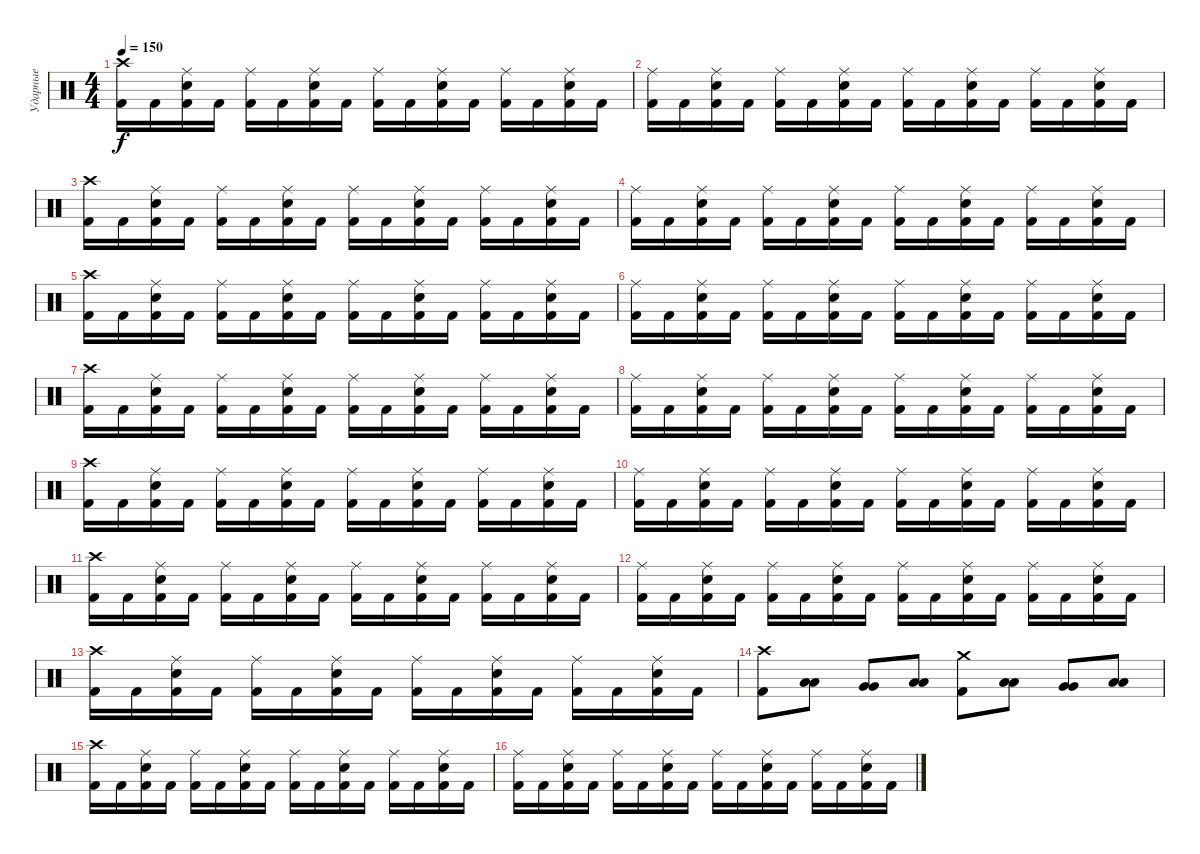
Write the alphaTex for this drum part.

\track ("Ударные" "Ударные") {instrument percussion}
\staff {score}
\articulation defaults
\ts (4 4)
\tempo 150
\clef neutral
\ks c
("Crash high (hit)" "Kick (hit) 2").16{dy f} "Kick (hit) 2".16 ("Ride (middle)" "Electric Snare (hit)" "Kick (hit) 2").16 "Kick (hit) 2".16 ("Ride (middle)" "Kick (hit) 2").16 "Kick (hit) 2".16 ("Ride (middle)" "Electric Snare (hit)" "Kick (hit) 2").16 "Kick (hit) 2".16 ("Ride (middle)" "Kick (hit) 2").16 "Kick (hit) 2".16 ("Ride (middle)" "Electric Snare (hit)" "Kick (hit) 2").16 "Kick (hit) 2".16 ("Ride (middle)" "Kick (hit) 2").16 "Kick (hit) 2".16 ("Ride (middle)" "Electric Snare (hit)" "Kick (hit) 2").16 "Kick (hit) 2".16 |
("Ride (middle)" "Kick (hit) 2").16 "Kick (hit) 2".16 ("Ride (middle)" "Electric Snare (hit)" "Kick (hit) 2").16 "Kick (hit) 2".16 ("Ride (middle)" "Kick (hit) 2").16 "Kick (hit) 2".16 ("Ride (middle)" "Electric Snare (hit)" "Kick (hit) 2").16 "Kick (hit) 2".16 ("Ride (middle)" "Kick (hit) 2").16 "Kick (hit) 2".16 ("Ride (middle)" "Electric Snare (hit)" "Kick (hit) 2").16 "Kick (hit) 2".16 ("Ride (middle)" "Kick (hit) 2").16 "Kick (hit) 2".16 ("Ride (middle)" "Electric Snare (hit)" "Kick (hit) 2").16 "Kick (hit) 2".16 |
("Crash high (hit)" "Kick (hit) 2").16 "Kick (hit) 2".16 ("Ride (middle)" "Electric Snare (hit)" "Kick (hit) 2").16 "Kick (hit) 2".16 ("Ride (middle)" "Kick (hit) 2").16 "Kick (hit) 2".16 ("Ride (middle)" "Electric Snare (hit)" "Kick (hit) 2").16 "Kick (hit) 2".16 ("Ride (middle)" "Kick (hit) 2").16 "Kick (hit) 2".16 ("Ride (middle)" "Electric Snare (hit)" "Kick (hit) 2").16 "Kick (hit) 2".16 ("Ride (middle)" "Kick (hit) 2").16 "Kick (hit) 2".16 ("Ride (middle)" "Electric Snare (hit)" "Kick (hit) 2").16 "Kick (hit) 2".16 |
("Ride (middle)" "Kick (hit) 2").16 "Kick (hit) 2".16 ("Ride (middle)" "Electric Snare (hit)" "Kick (hit) 2").16 "Kick (hit) 2".16 ("Ride (middle)" "Kick (hit) 2").16 "Kick (hit) 2".16 ("Ride (middle)" "Electric Snare (hit)" "Kick (hit) 2").16 "Kick (hit) 2".16 ("Ride (middle)" "Kick (hit) 2").16 "Kick (hit) 2".16 ("Ride (middle)" "Electric Snare (hit)" "Kick (hit) 2").16 "Kick (hit) 2".16 ("Ride (middle)" "Kick (hit) 2").16 "Kick (hit) 2".16 ("Ride (middle)" "Electric Snare (hit)" "Kick (hit) 2").16 "Kick (hit) 2".16 |
("Crash high (hit)" "Kick (hit) 2").16 "Kick (hit) 2".16 ("Ride (middle)" "Electric Snare (hit)" "Kick (hit) 2").16 "Kick (hit) 2".16 ("Ride (middle)" "Kick (hit) 2").16 "Kick (hit) 2".16 ("Ride (middle)" "Electric Snare (hit)" "Kick (hit) 2").16 "Kick (hit) 2".16 ("Ride (middle)" "Kick (hit) 2").16 "Kick (hit) 2".16 ("Ride (middle)" "Electric Snare (hit)" "Kick (hit) 2").16 "Kick (hit) 2".16 ("Ride (middle)" "Kick (hit) 2").16 "Kick (hit) 2".16 ("Ride (middle)" "Electric Snare (hit)" "Kick (hit) 2").16 "Kick (hit) 2".16 |
("Ride (middle)" "Kick (hit) 2").16 "Kick (hit) 2".16 ("Ride (middle)" "Electric Snare (hit)" "Kick (hit) 2").16 "Kick (hit) 2".16 ("Ride (middle)" "Kick (hit) 2").16 "Kick (hit) 2".16 ("Ride (middle)" "Electric Snare (hit)" "Kick (hit) 2").16 "Kick (hit) 2".16 ("Ride (middle)" "Kick (hit) 2").16 "Kick (hit) 2".16 ("Ride (middle)" "Electric Snare (hit)" "Kick (hit) 2").16 "Kick (hit) 2".16 ("Ride (middle)" "Kick (hit) 2").16 "Kick (hit) 2".16 ("Ride (middle)" "Electric Snare (hit)" "Kick (hit) 2").16 "Kick (hit) 2".16 |
("Crash high (hit)" "Kick (hit) 2").16 "Kick (hit) 2".16 ("Ride (middle)" "Electric Snare (hit)" "Kick (hit) 2").16 "Kick (hit) 2".16 ("Ride (middle)" "Kick (hit) 2").16 "Kick (hit) 2".16 ("Ride (middle)" "Electric Snare (hit)" "Kick (hit) 2").16 "Kick (hit) 2".16 ("Ride (middle)" "Kick (hit) 2").16 "Kick (hit) 2".16 ("Ride (middle)" "Electric Snare (hit)" "Kick (hit) 2").16 "Kick (hit) 2".16 ("Ride (middle)" "Kick (hit) 2").16 "Kick (hit) 2".16 ("Ride (middle)" "Electric Snare (hit)" "Kick (hit) 2").16 "Kick (hit) 2".16 |
("Ride (middle)" "Kick (hit) 2").16 "Kick (hit) 2".16 ("Ride (middle)" "Electric Snare (hit)" "Kick (hit) 2").16 "Kick (hit) 2".16 ("Ride (middle)" "Kick (hit) 2").16 "Kick (hit) 2".16 ("Ride (middle)" "Electric Snare (hit)" "Kick (hit) 2").16 "Kick (hit) 2".16 ("Ride (middle)" "Kick (hit) 2").16 "Kick (hit) 2".16 ("Ride (middle)" "Electric Snare (hit)" "Kick (hit) 2").16 "Kick (hit) 2".16 ("Ride (middle)" "Kick (hit) 2").16 "Kick (hit) 2".16 ("Ride (middle)" "Electric Snare (hit)" "Kick (hit) 2").16 "Kick (hit) 2".16 |
("Crash high (hit)" "Kick (hit) 2").16 "Kick (hit) 2".16 ("Ride (middle)" "Electric Snare (hit)" "Kick (hit) 2").16 "Kick (hit) 2".16 ("Ride (middle)" "Kick (hit) 2").16 "Kick (hit) 2".16 ("Ride (middle)" "Electric Snare (hit)" "Kick (hit) 2").16 "Kick (hit) 2".16 ("Ride (middle)" "Kick (hit) 2").16 "Kick (hit) 2".16 ("Ride (middle)" "Electric Snare (hit)" "Kick (hit) 2").16 "Kick (hit) 2".16 ("Ride (middle)" "Kick (hit) 2").16 "Kick (hit) 2".16 ("Ride (middle)" "Electric Snare (hit)" "Kick (hit) 2").16 "Kick (hit) 2".16 |
("Ride (middle)" "Kick (hit) 2").16 "Kick (hit) 2".16 ("Ride (middle)" "Electric Snare (hit)" "Kick (hit) 2").16 "Kick (hit) 2".16 ("Ride (middle)" "Kick (hit) 2").16 "Kick (hit) 2".16 ("Ride (middle)" "Electric Snare (hit)" "Kick (hit) 2").16 "Kick (hit) 2".16 ("Ride (middle)" "Kick (hit) 2").16 "Kick (hit) 2".16 ("Ride (middle)" "Electric Snare (hit)" "Kick (hit) 2").16 "Kick (hit) 2".16 ("Ride (middle)" "Kick (hit) 2").16 "Kick (hit) 2".16 ("Ride (middle)" "Electric Snare (hit)" "Kick (hit) 2").16 "Kick (hit) 2".16 |
("Crash high (hit)" "Kick (hit) 2").16 "Kick (hit) 2".16 ("Ride (middle)" "Electric Snare (hit)" "Kick (hit) 2").16 "Kick (hit) 2".16 ("Ride (middle)" "Kick (hit) 2").16 "Kick (hit) 2".16 ("Ride (middle)" "Electric Snare (hit)" "Kick (hit) 2").16 "Kick (hit) 2".16 ("Ride (middle)" "Kick (hit) 2").16 "Kick (hit) 2".16 ("Ride (middle)" "Electric Snare (hit)" "Kick (hit) 2").16 "Kick (hit) 2".16 ("Ride (middle)" "Kick (hit) 2").16 "Kick (hit) 2".16 ("Ride (middle)" "Electric Snare (hit)" "Kick (hit) 2").16 "Kick (hit) 2".16 |
("Ride (middle)" "Kick (hit) 2").16 "Kick (hit) 2".16 ("Ride (middle)" "Electric Snare (hit)" "Kick (hit) 2").16 "Kick (hit) 2".16 ("Ride (middle)" "Kick (hit) 2").16 "Kick (hit) 2".16 ("Ride (middle)" "Electric Snare (hit)" "Kick (hit) 2").16 "Kick (hit) 2".16 ("Ride (middle)" "Kick (hit) 2").16 "Kick (hit) 2".16 ("Ride (middle)" "Electric Snare (hit)" "Kick (hit) 2").16 "Kick (hit) 2".16 ("Ride (middle)" "Kick (hit) 2").16 "Kick (hit) 2".16 ("Ride (middle)" "Electric Snare (hit)" "Kick (hit) 2").16 "Kick (hit) 2".16 |
("Crash high (hit)" "Kick (hit) 2").16 "Kick (hit) 2".16 ("Ride (middle)" "Electric Snare (hit)" "Kick (hit) 2").16 "Kick (hit) 2".16 ("Ride (middle)" "Kick (hit) 2").16 "Kick (hit) 2".16 ("Ride (middle)" "Electric Snare (hit)" "Kick (hit) 2").16 "Kick (hit) 2".16 ("Ride (middle)" "Kick (hit) 2").16 "Kick (hit) 2".16 ("Ride (middle)" "Electric Snare (hit)" "Kick (hit) 2").16 "Kick (hit) 2".16 ("Ride (middle)" "Kick (hit) 2").16 "Kick (hit) 2".16 ("Ride (middle)" "Electric Snare (hit)" "Kick (hit) 2").16 "Kick (hit) 2".16 |
("Crash high (hit)" "Kick (hit) 2").8 ("Low Tom (hit)" "Low Tom (hit)").8 ("Very Low Tom (hit)" "Very Low Tom (hit)").8 ("Low Floor Tom (hit)" "Low Floor Tom (hit)").8 ("Crash medium (hit)" "Kick (hit) 2").8 ("Low Tom (hit)" "Low Tom (hit)").8 ("Very Low Tom (hit)" "Very Low Tom (hit)").8 ("Low Floor Tom (hit)" "Low Floor Tom (hit)").8 |
("Crash high (hit)" "Kick (hit) 2").16 "Kick (hit) 2".16 ("Ride (middle)" "Electric Snare (hit)" "Kick (hit) 2").16 "Kick (hit) 2".16 ("Ride (middle)" "Kick (hit) 2").16 "Kick (hit) 2".16 ("Ride (middle)" "Electric Snare (hit)" "Kick (hit) 2").16 "Kick (hit) 2".16 ("Ride (middle)" "Kick (hit) 2").16 "Kick (hit) 2".16 ("Ride (middle)" "Electric Snare (hit)" "Kick (hit) 2").16 "Kick (hit) 2".16 ("Ride (middle)" "Kick (hit) 2").16 "Kick (hit) 2".16 ("Ride (middle)" "Electric Snare (hit)" "Kick (hit) 2").16 "Kick (hit) 2".16 |
("Ride (middle)" "Kick (hit) 2").16 "Kick (hit) 2".16 ("Ride (middle)" "Electric Snare (hit)" "Kick (hit) 2").16 "Kick (hit) 2".16 ("Ride (middle)" "Kick (hit) 2").16 "Kick (hit) 2".16 ("Ride (middle)" "Electric Snare (hit)" "Kick (hit) 2").16 "Kick (hit) 2".16 ("Ride (middle)" "Kick (hit) 2").16 "Kick (hit) 2".16 ("Ride (middle)" "Electric Snare (hit)" "Kick (hit) 2").16 "Kick (hit) 2".16 ("Ride (middle)" "Kick (hit) 2").16 "Kick (hit) 2".16 ("Ride (middle)" "Electric Snare (hit)" "Kick (hit) 2").16 "Kick (hit) 2".16
